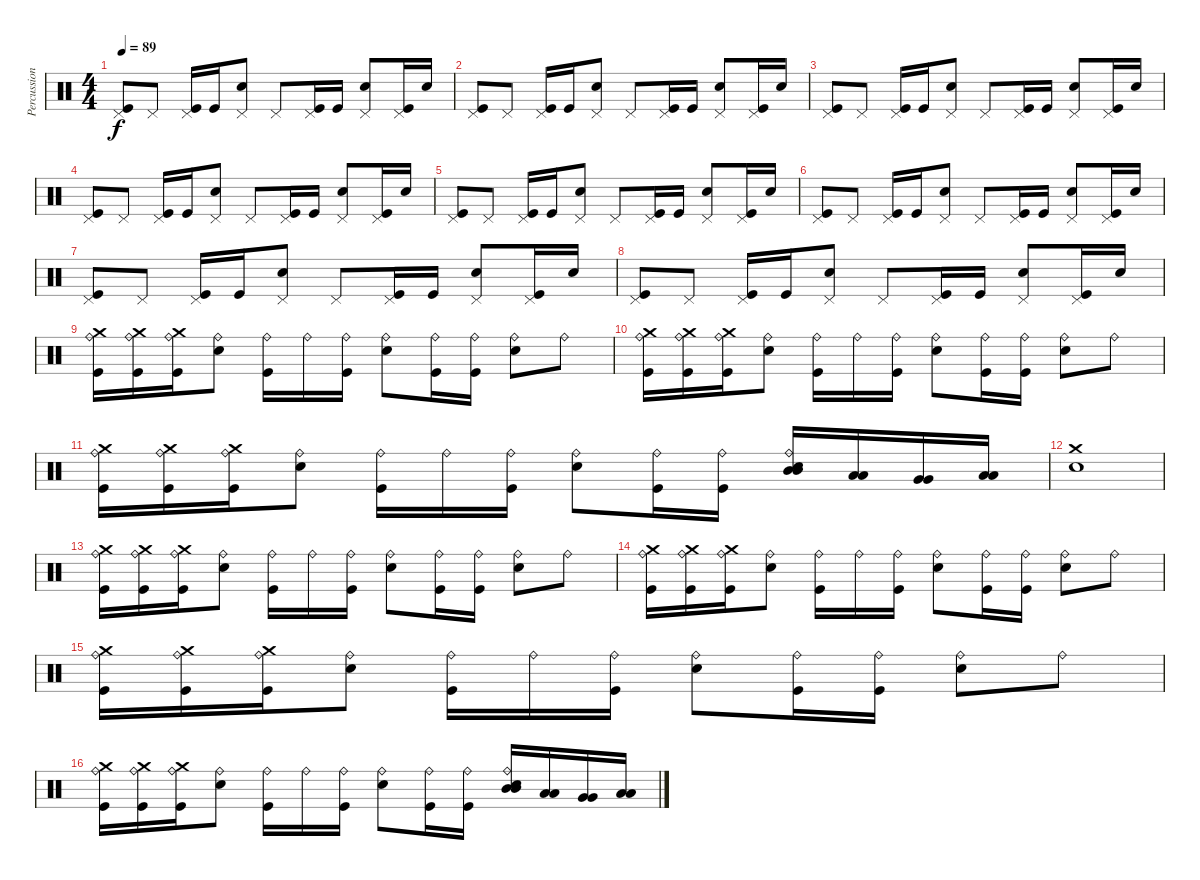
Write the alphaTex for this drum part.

\track ("Percussion" "Percussion") {instrument percussion}
\staff {score}
\articulation defaults
\ts (4 4)
\tempo 89
\clef neutral
\ks c
("Pedal Hi-Hat (hit)" "Kick (hit)").8{dy f} "Pedal Hi-Hat (hit)".8 ("Pedal Hi-Hat (hit)" "Kick (hit)").16 "Kick (hit)".16 ("Pedal Hi-Hat (hit)" "Snare (hit) 2").8 "Pedal Hi-Hat (hit)".8 ("Pedal Hi-Hat (hit)" "Kick (hit)").16 "Kick (hit)".16 ("Pedal Hi-Hat (hit)" "Snare (hit) 2").8 ("Pedal Hi-Hat (hit)" "Kick (hit)").16 "Snare (hit) 2".16 |
("Pedal Hi-Hat (hit)" "Kick (hit)").8 "Pedal Hi-Hat (hit)".8 ("Pedal Hi-Hat (hit)" "Kick (hit)").16 "Kick (hit)".16 ("Pedal Hi-Hat (hit)" "Snare (hit) 2").8 "Pedal Hi-Hat (hit)".8 ("Pedal Hi-Hat (hit)" "Kick (hit)").16 "Kick (hit)".16 ("Pedal Hi-Hat (hit)" "Snare (hit) 2").8 ("Pedal Hi-Hat (hit)" "Kick (hit)").16 "Snare (hit) 2".16 |
("Pedal Hi-Hat (hit)" "Kick (hit)").8 "Pedal Hi-Hat (hit)".8 ("Pedal Hi-Hat (hit)" "Kick (hit)").16 "Kick (hit)".16 ("Pedal Hi-Hat (hit)" "Snare (hit) 2").8 "Pedal Hi-Hat (hit)".8 ("Pedal Hi-Hat (hit)" "Kick (hit)").16 "Kick (hit)".16 ("Pedal Hi-Hat (hit)" "Snare (hit) 2").8 ("Pedal Hi-Hat (hit)" "Kick (hit)").16 "Snare (hit) 2".16 |
("Pedal Hi-Hat (hit)" "Kick (hit)").8 "Pedal Hi-Hat (hit)".8 ("Pedal Hi-Hat (hit)" "Kick (hit)").16 "Kick (hit)".16 ("Pedal Hi-Hat (hit)" "Snare (hit) 2").8 "Pedal Hi-Hat (hit)".8 ("Pedal Hi-Hat (hit)" "Kick (hit)").16 "Kick (hit)".16 ("Pedal Hi-Hat (hit)" "Snare (hit) 2").8 ("Pedal Hi-Hat (hit)" "Kick (hit)").16 "Snare (hit) 2".16 |
("Pedal Hi-Hat (hit)" "Kick (hit)").8 "Pedal Hi-Hat (hit)".8 ("Pedal Hi-Hat (hit)" "Kick (hit)").16 "Kick (hit)".16 ("Pedal Hi-Hat (hit)" "Snare (hit) 2").8 "Pedal Hi-Hat (hit)".8 ("Pedal Hi-Hat (hit)" "Kick (hit)").16 "Kick (hit)".16 ("Pedal Hi-Hat (hit)" "Snare (hit) 2").8 ("Pedal Hi-Hat (hit)" "Kick (hit)").16 "Snare (hit) 2".16 |
("Pedal Hi-Hat (hit)" "Kick (hit)").8 "Pedal Hi-Hat (hit)".8 ("Pedal Hi-Hat (hit)" "Kick (hit)").16 "Kick (hit)".16 ("Pedal Hi-Hat (hit)" "Snare (hit) 2").8 "Pedal Hi-Hat (hit)".8 ("Pedal Hi-Hat (hit)" "Kick (hit)").16 "Kick (hit)".16 ("Pedal Hi-Hat (hit)" "Snare (hit) 2").8 ("Pedal Hi-Hat (hit)" "Kick (hit)").16 "Snare (hit) 2".16 |
("Pedal Hi-Hat (hit)" "Kick (hit)").8 "Pedal Hi-Hat (hit)".8 ("Pedal Hi-Hat (hit)" "Kick (hit)").16 "Kick (hit)".16 ("Pedal Hi-Hat (hit)" "Snare (hit) 2").8 "Pedal Hi-Hat (hit)".8 ("Pedal Hi-Hat (hit)" "Kick (hit)").16 "Kick (hit)".16 ("Pedal Hi-Hat (hit)" "Snare (hit) 2").8 ("Pedal Hi-Hat (hit)" "Kick (hit)").16 "Snare (hit) 2".16 |
("Pedal Hi-Hat (hit)" "Kick (hit)").8 "Pedal Hi-Hat (hit)".8 ("Pedal Hi-Hat (hit)" "Kick (hit)").16 "Kick (hit)".16 ("Pedal Hi-Hat (hit)" "Snare (hit) 2").8 "Pedal Hi-Hat (hit)".8 ("Pedal Hi-Hat (hit)" "Kick (hit)").16 "Kick (hit)".16 ("Pedal Hi-Hat (hit)" "Snare (hit) 2").8 ("Pedal Hi-Hat (hit)" "Kick (hit)").16 "Snare (hit) 2".16 |
("Ride (bell)" "Crash medium (hit)" "Kick (hit)").16 ("Ride (bell)" "Crash medium (hit)" "Kick (hit)").16 ("Ride (bell)" "Crash medium (hit)" "Kick (hit)").16 ("Ride (bell)" "Snare (hit) 2").8 ("Ride (bell)" "Kick (hit)").16 "Ride (bell)".16 ("Ride (bell)" "Kick (hit)").16 ("Ride (bell)" "Snare (hit) 2").8 ("Ride (bell)" "Kick (hit)").16 ("Ride (bell)" "Kick (hit)").16 ("Ride (bell)" "Snare (hit) 2").8 "Ride (bell)".8 |
("Ride (bell)" "Crash medium (hit)" "Kick (hit)").16 ("Ride (bell)" "Crash medium (hit)" "Kick (hit)").16 ("Ride (bell)" "Crash medium (hit)" "Kick (hit)").16 ("Ride (bell)" "Snare (hit) 2").8 ("Ride (bell)" "Kick (hit)").16 "Ride (bell)".16 ("Ride (bell)" "Kick (hit)").16 ("Ride (bell)" "Snare (hit) 2").8 ("Ride (bell)" "Kick (hit)").16 ("Ride (bell)" "Kick (hit)").16 ("Ride (bell)" "Snare (hit) 2").8 "Ride (bell)".8 |
("Ride (bell)" "Crash medium (hit)" "Kick (hit)").16 ("Ride (bell)" "Crash medium (hit)" "Kick (hit)").16 ("Ride (bell)" "Crash medium (hit)" "Kick (hit)").16 ("Ride (bell)" "Snare (hit) 2").8 ("Ride (bell)" "Kick (hit)").16 "Ride (bell)".16 ("Ride (bell)" "Kick (hit)").16 ("Ride (bell)" "Snare (hit) 2").8 ("Ride (bell)" "Kick (hit)").16 ("Ride (bell)" "Kick (hit)").16 ("Ride (bell)" "Snare (hit) 2" "Mid Tom (hit)" "Mid Tom (hit)").16 ("Low Tom (hit)" "Low Tom (hit)").16 ("Very Low Tom (hit)" "Very Low Tom (hit)").16 ("Low Floor Tom (hit)" "Low Floor Tom (hit)").16 |
("Crash medium (hit)" "Snare (hit) 2").1 |
("Ride (bell)" "Crash medium (hit)" "Kick (hit)").16 ("Ride (bell)" "Crash medium (hit)" "Kick (hit)").16 ("Ride (bell)" "Crash medium (hit)" "Kick (hit)").16 ("Ride (bell)" "Snare (hit) 2").8 ("Ride (bell)" "Kick (hit)").16 "Ride (bell)".16 ("Ride (bell)" "Kick (hit)").16 ("Ride (bell)" "Snare (hit) 2").8 ("Ride (bell)" "Kick (hit)").16 ("Ride (bell)" "Kick (hit)").16 ("Ride (bell)" "Snare (hit) 2").8 "Ride (bell)".8 |
("Ride (bell)" "Crash medium (hit)" "Kick (hit)").16 ("Ride (bell)" "Crash medium (hit)" "Kick (hit)").16 ("Ride (bell)" "Crash medium (hit)" "Kick (hit)").16 ("Ride (bell)" "Snare (hit) 2").8 ("Ride (bell)" "Kick (hit)").16 "Ride (bell)".16 ("Ride (bell)" "Kick (hit)").16 ("Ride (bell)" "Snare (hit) 2").8 ("Ride (bell)" "Kick (hit)").16 ("Ride (bell)" "Kick (hit)").16 ("Ride (bell)" "Snare (hit) 2").8 "Ride (bell)".8 |
("Ride (bell)" "Crash medium (hit)" "Kick (hit)").16 ("Ride (bell)" "Crash medium (hit)" "Kick (hit)").16 ("Ride (bell)" "Crash medium (hit)" "Kick (hit)").16 ("Ride (bell)" "Snare (hit) 2").8 ("Ride (bell)" "Kick (hit)").16 "Ride (bell)".16 ("Ride (bell)" "Kick (hit)").16 ("Ride (bell)" "Snare (hit) 2").8 ("Ride (bell)" "Kick (hit)").16 ("Ride (bell)" "Kick (hit)").16 ("Ride (bell)" "Snare (hit) 2").8 "Ride (bell)".8 |
("Ride (bell)" "Crash medium (hit)" "Kick (hit)").16 ("Ride (bell)" "Crash medium (hit)" "Kick (hit)").16 ("Ride (bell)" "Crash medium (hit)" "Kick (hit)").16 ("Ride (bell)" "Snare (hit) 2").8 ("Ride (bell)" "Kick (hit)").16 "Ride (bell)".16 ("Ride (bell)" "Kick (hit)").16 ("Ride (bell)" "Snare (hit) 2").8 ("Ride (bell)" "Kick (hit)").16 ("Ride (bell)" "Kick (hit)").16 ("Ride (bell)" "Snare (hit) 2" "Mid Tom (hit)" "Mid Tom (hit)").16 ("Low Tom (hit)" "Low Tom (hit)").16 ("Very Low Tom (hit)" "Very Low Tom (hit)").16 ("Low Floor Tom (hit)" "Low Floor Tom (hit)").16
